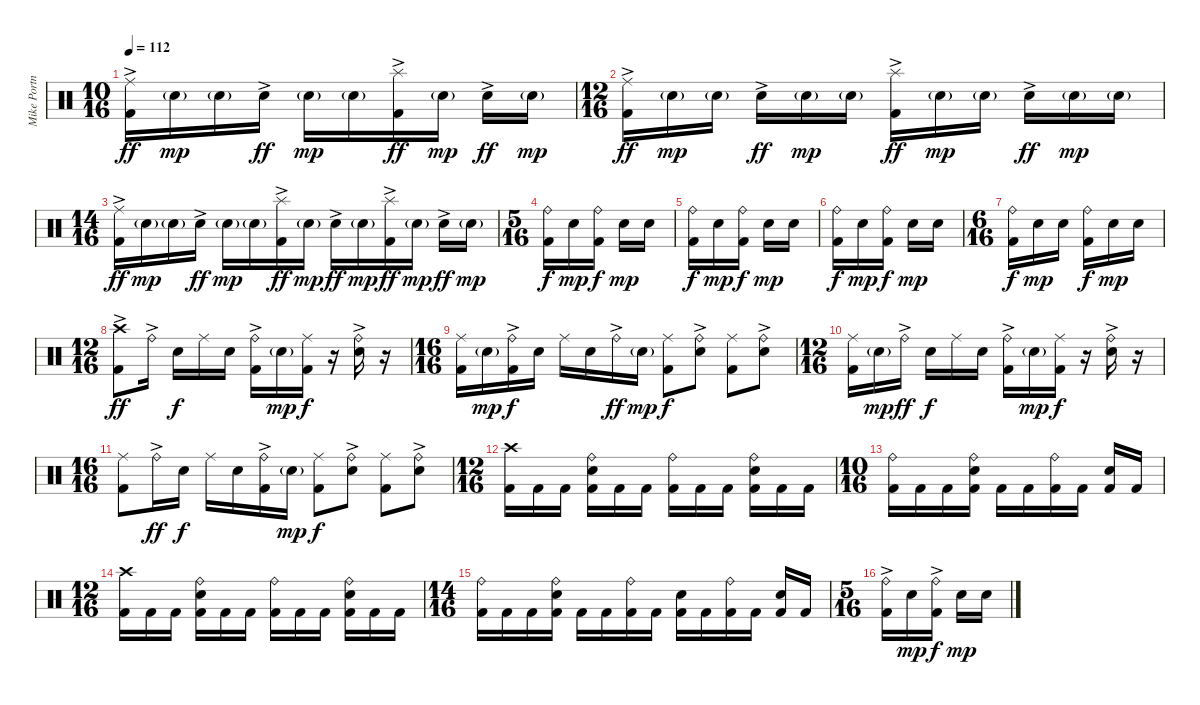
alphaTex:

\track ("Mike Portnoy" "Mike Portn") {instrument percussion}
\staff {score}
\articulation defaults
\ts (10 16)
\tempo 112
\clef neutral
\ks c
("Ride (middle)" "Kick (hit) 2"{ac}).16{dy ff} "Electric Snare (hit)"{g}.16{dy mp} "Electric Snare (hit)"{g}.16 "Electric Snare (hit)"{ac}.16{dy ff} "Electric Snare (hit)"{g}.16{dy mp} "Electric Snare (hit)"{g}.16 ("Splash (hit)" "Kick (hit) 2"{ac}).16{dy ff} "Electric Snare (hit)"{g}.16{dy mp} "Electric Snare (hit)"{ac}.16{dy ff} "Electric Snare (hit)"{g}.16{dy mp} |
\ts (12 16)
("Ride (middle)" "Kick (hit) 2"{ac}).16{dy ff} "Electric Snare (hit)"{g}.16{dy mp} "Electric Snare (hit)"{g}.16 "Electric Snare (hit)"{ac}.16{dy ff} "Electric Snare (hit)"{g}.16{dy mp} "Electric Snare (hit)"{g}.16 ("Splash (hit)" "Kick (hit) 2"{ac}).16{dy ff} "Electric Snare (hit)"{g}.16{dy mp} "Electric Snare (hit)"{g}.16 "Electric Snare (hit)"{ac}.16{dy ff} "Electric Snare (hit)"{g}.16{dy mp} "Electric Snare (hit)"{g}.16 |
\ts (14 16)
("Ride (middle)" "Kick (hit) 2"{ac}).16{dy ff} "Electric Snare (hit)"{g}.16{dy mp} "Electric Snare (hit)"{g}.16 "Electric Snare (hit)"{ac}.16{dy ff} "Electric Snare (hit)"{g}.16{dy mp} "Electric Snare (hit)"{g}.16 ("Splash (hit)" "Kick (hit) 2"{ac}).16{dy ff} "Electric Snare (hit)"{g}.16{dy mp} "Electric Snare (hit)"{ac}.16{dy ff} "Electric Snare (hit)"{g}.16{dy mp} ("Splash (hit)" "Kick (hit) 2"{ac}).16{dy ff} "Electric Snare (hit)"{g}.16{dy mp} "Electric Snare (hit)"{ac}.16{dy ff} "Electric Snare (hit)"{g}.16{dy mp} |
\ts (5 16)
("Ride (bell)" "Kick (hit) 2").16{dy f} "Electric Snare (hit)".16{dy mp} ("Ride (bell)" "Kick (hit) 2").16{dy f} "Electric Snare (hit)".16{dy mp} "Electric Snare (hit)".16 |
("Ride (bell)" "Kick (hit) 2").16{dy f} "Electric Snare (hit)".16{dy mp} ("Ride (bell)" "Kick (hit) 2").16{dy f} "Electric Snare (hit)".16{dy mp} "Electric Snare (hit)".16 |
("Ride (bell)" "Kick (hit) 2").16{dy f} "Electric Snare (hit)".16{dy mp} ("Ride (bell)" "Kick (hit) 2").16{dy f} "Electric Snare (hit)".16{dy mp} "Electric Snare (hit)".16 |
\ts (6 16)
("Ride (bell)" "Kick (hit) 2").16{dy f} "Electric Snare (hit)".16{dy mp} "Electric Snare (hit)".16 ("Ride (bell)" "Kick (hit) 2").16{dy f} "Electric Snare (hit)".16{dy mp} "Electric Snare (hit)".16 |
\ts (12 16)
("Crash high (hit)"{ac} "Kick (hit) 2"{ac}).8{dy ff} "Ride (bell)"{ac}.16 "Electric Snare (hit)".16{dy f} "Ride (middle)".16 "Electric Snare (hit)".16 ("Ride (bell)"{ac} "Kick (hit) 2").16 "Electric Snare (hit)"{g}.16{dy mp} ("Ride (middle)" "Kick (hit) 2").16{dy f} r.16 ("Ride (bell)"{ac} "Electric Snare (hit)").16 r.16 |
\ts (16 16)
("Ride (middle)" "Kick (hit) 2").16 "Electric Snare (hit)"{g}.16{dy mp} ("Ride (bell)"{ac} "Kick (hit) 2").16{dy f} "Electric Snare (hit)".16 "Ride (middle)".16 "Electric Snare (hit)".16 "Ride (bell)"{ac}.16{dy ff} "Electric Snare (hit)"{g}.16{dy mp} ("Ride (middle)" "Kick (hit) 2").8{dy f} ("Ride (bell)"{ac} "Electric Snare (hit)").8 ("Ride (middle)" "Kick (hit) 2").8 ("Ride (bell)"{ac} "Electric Snare (hit)").8 |
\ts (12 16)
("Ride (middle)" "Kick (hit) 2").16 "Electric Snare (hit)"{g}.16{dy mp} "Ride (bell)"{ac}.16{dy ff} "Electric Snare (hit)".16{dy f} "Ride (middle)".16 "Electric Snare (hit)".16 ("Ride (bell)"{ac} "Kick (hit) 2").16 "Electric Snare (hit)"{g}.16{dy mp} ("Ride (middle)" "Kick (hit) 2").16{dy f} r.16 ("Ride (bell)"{ac} "Electric Snare (hit)").16 r.16 |
\ts (16 16)
("Ride (middle)" "Kick (hit) 2").8 "Ride (bell)"{ac}.16{dy ff} "Electric Snare (hit)".16{dy f} "Ride (middle)".16 "Electric Snare (hit)".16 ("Ride (bell)"{ac} "Kick (hit) 2").16 "Electric Snare (hit)"{g}.16{dy mp} ("Ride (middle)" "Kick (hit) 2").8{dy f} ("Ride (bell)"{ac} "Electric Snare (hit)").8 ("Ride (middle)" "Kick (hit) 2").8 ("Ride (bell)"{ac} "Electric Snare (hit)").8 |
\ts (12 16)
("Crash high (hit)" "Kick (hit) 2").16 "Kick (hit) 2".16 "Kick (hit) 2".16 ("Ride (bell)" "Electric Snare (hit)" "Kick (hit) 2").16 "Kick (hit) 2".16 "Kick (hit) 2".16 ("Ride (bell)" "Kick (hit) 2").16 "Kick (hit) 2".16 "Kick (hit) 2".16 ("Ride (bell)" "Electric Snare (hit)" "Kick (hit) 2").16 "Kick (hit) 2".16 "Kick (hit) 2".16 |
\ts (10 16)
("Ride (bell)" "Kick (hit) 2").16 "Kick (hit) 2".16 "Kick (hit) 2".16 ("Ride (bell)" "Electric Snare (hit)" "Kick (hit) 2").16 "Kick (hit) 2".16 "Kick (hit) 2".16 ("Ride (bell)" "Kick (hit) 2").16 "Kick (hit) 2".16 ("Electric Snare (hit)" "Kick (hit) 2").16 "Kick (hit) 2".16 |
\ts (12 16)
("Crash high (hit)" "Kick (hit) 2").16 "Kick (hit) 2".16 "Kick (hit) 2".16 ("Ride (bell)" "Electric Snare (hit)" "Kick (hit) 2").16 "Kick (hit) 2".16 "Kick (hit) 2".16 ("Ride (bell)" "Kick (hit) 2").16 "Kick (hit) 2".16 "Kick (hit) 2".16 ("Ride (bell)" "Electric Snare (hit)" "Kick (hit) 2").16 "Kick (hit) 2".16 "Kick (hit) 2".16 |
\ts (14 16)
("Ride (bell)" "Kick (hit) 2").16 "Kick (hit) 2".16 "Kick (hit) 2".16 ("Ride (bell)" "Electric Snare (hit)" "Kick (hit) 2").16 "Kick (hit) 2".16 "Kick (hit) 2".16 ("Ride (bell)" "Kick (hit) 2").16 "Kick (hit) 2".16 ("Electric Snare (hit)" "Kick (hit) 2").16 "Kick (hit) 2".16 ("Ride (bell)" "Kick (hit) 2").16 "Kick (hit) 2".16 ("Electric Snare (hit)" "Kick (hit) 2").16 "Kick (hit) 2".16 |
\ts (5 16)
("Ride (bell)"{ac} "Kick (hit) 2").16 "Electric Snare (hit)".16{dy mp} ("Ride (bell)"{ac} "Kick (hit) 2").16{dy f} "Electric Snare (hit)".16{dy mp} "Electric Snare (hit)".16
